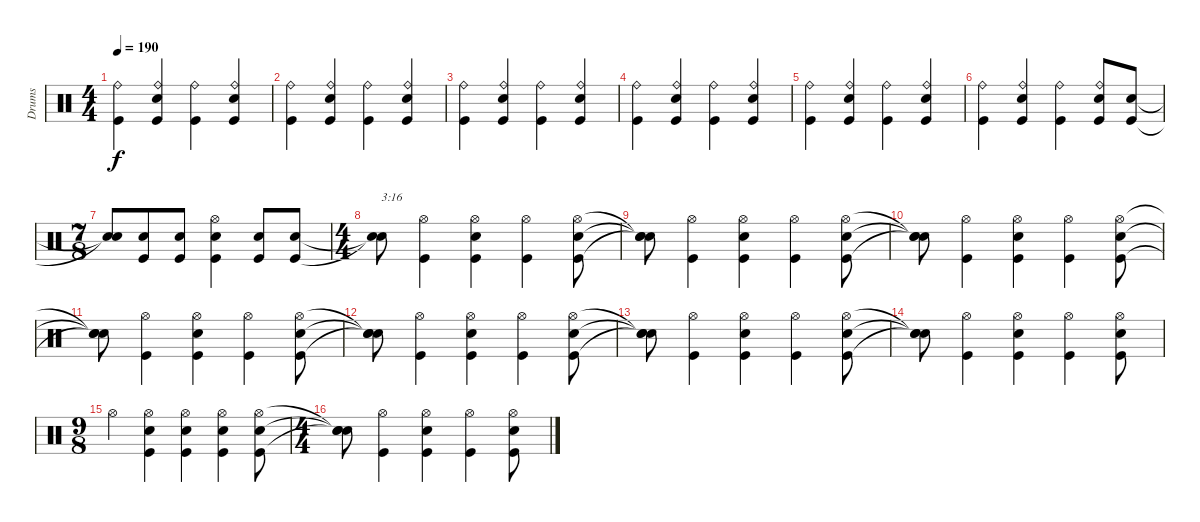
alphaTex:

\track ("Drums" "Drums") {instrument percussion}
\staff {score}
\articulation defaults
\ts (4 4)
\tempo 190
\clef neutral
\ks c
("Kick (hit)" "Ride (bell)").4{dy f} ("Kick (hit)" "Snare (hit) 2" "Ride (bell)").4 ("Kick (hit)" "Ride (bell)").4 ("Kick (hit)" "Snare (hit) 2" "Ride (bell)").4 |
("Kick (hit)" "Ride (bell)").4 ("Kick (hit)" "Snare (hit) 2" "Ride (bell)").4 ("Kick (hit)" "Ride (bell)").4 ("Kick (hit)" "Snare (hit) 2" "Ride (bell)").4 |
("Kick (hit)" "Ride (bell)").4 ("Kick (hit)" "Snare (hit) 2" "Ride (bell)").4 ("Kick (hit)" "Ride (bell)").4 ("Kick (hit)" "Snare (hit) 2" "Ride (bell)").4 |
("Kick (hit)" "Ride (bell)").4 ("Kick (hit)" "Snare (hit) 2" "Ride (bell)").4 ("Kick (hit)" "Ride (bell)").4 ("Kick (hit)" "Snare (hit) 2" "Ride (bell)").4 |
("Kick (hit)" "Ride (bell)").4 ("Kick (hit)" "Snare (hit) 2" "Ride (bell)").4 ("Kick (hit)" "Ride (bell)").4 ("Kick (hit)" "Snare (hit) 2" "Ride (bell)").4 |
("Kick (hit)" "Ride (bell)").4 ("Kick (hit)" "Snare (hit) 2" "Ride (bell)").4 ("Kick (hit)" "Ride (bell)").4 ("Kick (hit)" "Snare (hit) 2" "Ride (bell)").8 ("Kick (hit)" "Snare (hit) 2").8 |
\ts (7 8)
("Snare (hit)"{t} "Snare (hit)"{t}).8 ("Kick (hit)" "Snare (hit) 2").8 ("Kick (hit)" "Snare (hit) 2").8 ("Kick (hit)" "Snare (hit) 2" "Hi-Hat (open)").4 ("Kick (hit)" "Snare (hit) 2").8 ("Kick (hit)" "Snare (hit) 2").8 |
\ts (4 4)
("Snare (hit)"{t} "Snare (hit)"{t}).8{txt "3:16"} ("Kick (hit)" "Hi-Hat (open)").4 ("Kick (hit)" "Snare (hit) 2" "Hi-Hat (open)").4 ("Kick (hit)" "Hi-Hat (open)").4 ("Kick (hit)" "Snare (hit) 2" "Hi-Hat (open)").8 |
("Snare (hit)"{t} "Snare (hit)"{t} "Snare (hit)"{t}).8 ("Kick (hit)" "Hi-Hat (open)").4 ("Kick (hit)" "Snare (hit) 2" "Hi-Hat (open)").4 ("Kick (hit)" "Hi-Hat (open)").4 ("Kick (hit)" "Snare (hit) 2" "Hi-Hat (open)").8 |
("Snare (hit)"{t} "Snare (hit)"{t} "Snare (hit)"{t}).8 ("Kick (hit)" "Hi-Hat (open)").4 ("Kick (hit)" "Snare (hit) 2" "Hi-Hat (open)").4 ("Kick (hit)" "Hi-Hat (open)").4 ("Kick (hit)" "Snare (hit) 2" "Hi-Hat (open)").8 |
("Snare (hit)"{t} "Snare (hit)"{t} "Snare (hit)"{t}).8 ("Kick (hit)" "Hi-Hat (open)").4 ("Kick (hit)" "Snare (hit) 2" "Hi-Hat (open)").4 ("Kick (hit)" "Hi-Hat (open)").4 ("Kick (hit)" "Snare (hit) 2" "Hi-Hat (open)").8 |
("Snare (hit)"{t} "Snare (hit)"{t} "Snare (hit)"{t}).8 ("Kick (hit)" "Hi-Hat (open)").4 ("Kick (hit)" "Snare (hit) 2" "Hi-Hat (open)").4 ("Kick (hit)" "Hi-Hat (open)").4 ("Kick (hit)" "Snare (hit) 2" "Hi-Hat (open)").8 |
("Snare (hit)"{t} "Snare (hit)"{t} "Snare (hit)"{t}).8 ("Kick (hit)" "Hi-Hat (open)").4 ("Kick (hit)" "Snare (hit) 2" "Hi-Hat (open)").4 ("Kick (hit)" "Hi-Hat (open)").4 ("Kick (hit)" "Snare (hit) 2" "Hi-Hat (open)").8 |
("Snare (hit)"{t} "Snare (hit)"{t} "Snare (hit)"{t}).8 ("Kick (hit)" "Hi-Hat (open)").4 ("Kick (hit)" "Snare (hit) 2" "Hi-Hat (open)").4 ("Kick (hit)" "Hi-Hat (open)").4 ("Kick (hit)" "Snare (hit) 2" "Hi-Hat (open)").8 |
\ts (9 8)
"Hi-Hat (open)".4 ("Kick (hit)" "Snare (hit) 2" "Hi-Hat (open)").4 ("Kick (hit)" "Snare (hit) 2" "Hi-Hat (open)").4 ("Kick (hit)" "Snare (hit) 2" "Hi-Hat (open)").4 ("Kick (hit)" "Snare (hit) 2" "Hi-Hat (open)").8 |
\ts (4 4)
("Snare (hit)"{t} "Snare (hit)"{t} "Snare (hit)"{t}).8 ("Kick (hit)" "Hi-Hat (open)").4 ("Kick (hit)" "Snare (hit) 2" "Hi-Hat (open)").4 ("Kick (hit)" "Hi-Hat (open)").4 ("Kick (hit)" "Snare (hit) 2" "Hi-Hat (open)").8
